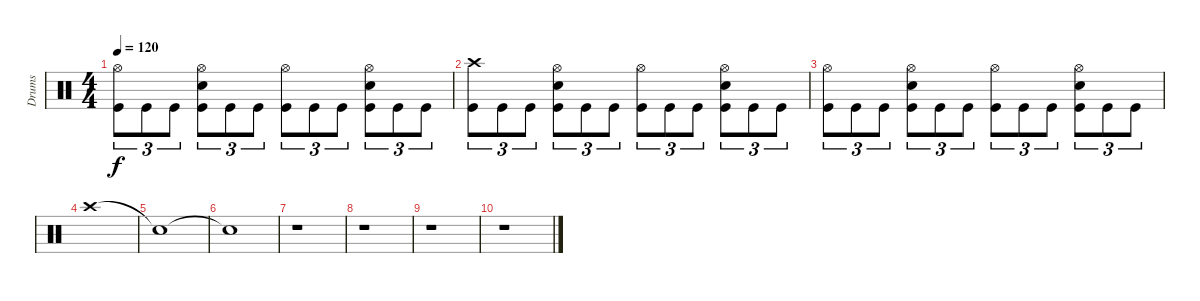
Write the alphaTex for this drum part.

\track ("Drums" "Drums") {instrument percussion}
\staff {score}
\articulation defaults
\ts (4 4)
\tempo 120
\clef neutral
\ks c
("Hi-Hat (open)" "Kick (hit)").8{tu (3 2) dy f} "Kick (hit)".8{tu (3 2)} "Kick (hit)".8{tu (3 2)} ("Hi-Hat (open)" "Snare (hit) 2" "Kick (hit)").8{tu (3 2)} "Kick (hit)".8{tu (3 2)} "Kick (hit)".8{tu (3 2)} ("Hi-Hat (open)" "Kick (hit)").8{tu (3 2)} "Kick (hit)".8{tu (3 2)} "Kick (hit)".8{tu (3 2)} ("Hi-Hat (open)" "Snare (hit) 2" "Kick (hit)").8{tu (3 2)} "Kick (hit)".8{tu (3 2)} "Kick (hit)".8{tu (3 2)} |
("Crash high (hit)" "Kick (hit)").8{tu (3 2)} "Kick (hit)".8{tu (3 2)} "Kick (hit)".8{tu (3 2)} ("Hi-Hat (open)" "Snare (hit) 2" "Kick (hit)").8{tu (3 2)} "Kick (hit)".8{tu (3 2)} "Kick (hit)".8{tu (3 2)} ("Hi-Hat (open)" "Kick (hit)").8{tu (3 2)} "Kick (hit)".8{tu (3 2)} "Kick (hit)".8{tu (3 2)} ("Hi-Hat (open)" "Snare (hit) 2" "Kick (hit)").8{tu (3 2)} "Kick (hit)".8{tu (3 2)} "Kick (hit)".8{tu (3 2)} |
("Hi-Hat (open)" "Kick (hit)").8{tu (3 2)} "Kick (hit)".8{tu (3 2)} "Kick (hit)".8{tu (3 2)} ("Hi-Hat (open)" "Snare (hit) 2" "Kick (hit)").8{tu (3 2)} "Kick (hit)".8{tu (3 2)} "Kick (hit)".8{tu (3 2)} ("Hi-Hat (open)" "Kick (hit)").8{tu (3 2)} "Kick (hit)".8{tu (3 2)} "Kick (hit)".8{tu (3 2)} ("Hi-Hat (open)" "Snare (hit) 2" "Kick (hit)").8{tu (3 2)} "Kick (hit)".8{tu (3 2)} "Kick (hit)".8{tu (3 2)} |
"Crash high (hit)".1 |
"Snare (hit)"{t}.1 |
"Snare (hit)"{t}.1 |
r.1 |
r.1 |
r.1 |
r.1
